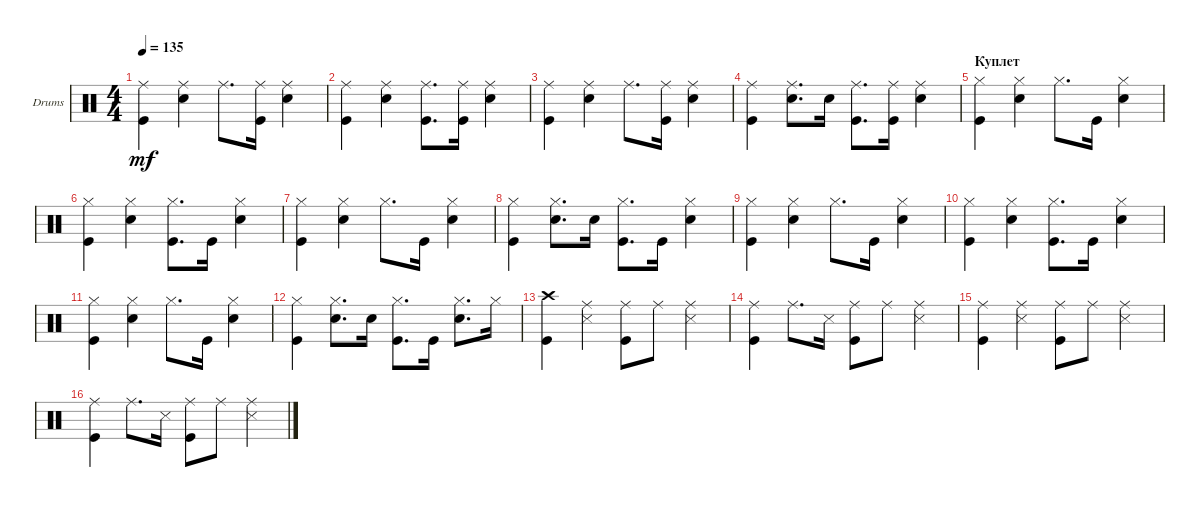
\defaultSystemsLayout 4
\bracketExtendMode groupsimilarinstruments
\firstSystemTrackNameOrientation horizontal
\otherSystemsTrackNameOrientation horizontal
\track ("Drumkit" "Drums") {instrument percussion}
\staff {score}
\articulation defaults
\ts (4 4)
\tempo 135
\clef neutral
\ks c
("Ride (middle)" "Kick (hit)").4{dy mf} ("Ride (middle)" "Snare (hit) 2").4 "Ride (middle)".8{d} ("Ride (middle)" "Kick (hit)").16 ("Ride (middle)" "Snare (hit) 2").4 |
("Ride (middle)" "Kick (hit)").4 ("Ride (middle)" "Snare (hit) 2").4 ("Ride (middle)" "Kick (hit)").8{d} ("Ride (middle)" "Kick (hit)").16 ("Ride (middle)" "Snare (hit) 2").4 |
("Ride (middle)" "Kick (hit)").4 ("Ride (middle)" "Snare (hit) 2").4 "Ride (middle)".8{d} ("Ride (middle)" "Kick (hit)").16 ("Ride (middle)" "Snare (hit) 2").4 |
("Ride (middle)" "Kick (hit)").4 ("Ride (middle)" "Snare (hit) 2").8{d} "Snare (hit) 2".16 ("Ride (middle)" "Kick (hit)").8{d} ("Ride (middle)" "Kick (hit)").16 ("Ride (middle)" "Snare (hit) 2").4 |
\section ("" "Куплет")
\scale
0.472222 ("Kick (hit)" "Hi-Hat (closed)").4 ("Snare (hit) 2" "Hi-Hat (closed)").4 "Hi-Hat (closed)".8{d} "Kick (hit)".16 ("Snare (hit) 2" "Hi-Hat (closed)").4 |
\scale
0.263889 ("Kick (hit)" "Hi-Hat (closed)").4 ("Snare (hit) 2" "Hi-Hat (closed)").4 ("Kick (hit)" "Hi-Hat (closed)").8{d} "Kick (hit)".16 ("Snare (hit) 2" "Hi-Hat (closed)").4 |
\scale
0.263889 ("Kick (hit)" "Hi-Hat (closed)").4 ("Snare (hit) 2" "Hi-Hat (closed)").4 "Hi-Hat (closed)".8{d} "Kick (hit)".16 ("Snare (hit) 2" "Hi-Hat (closed)").4 |
\scale
0.333333 ("Kick (hit)" "Hi-Hat (closed)").4 ("Snare (hit) 2" "Hi-Hat (closed)").8{d} "Snare (hit) 2".16 ("Kick (hit)" "Hi-Hat (closed)").8{d} "Kick (hit)".16 ("Snare (hit) 2" "Hi-Hat (closed)").4 |
\scale
0.333333 ("Kick (hit)" "Hi-Hat (closed)").4 ("Snare (hit) 2" "Hi-Hat (closed)").4 "Hi-Hat (closed)".8{d} "Kick (hit)".16 ("Snare (hit) 2" "Hi-Hat (closed)").4 |
\scale
0.333333 ("Kick (hit)" "Hi-Hat (closed)").4 ("Snare (hit) 2" "Hi-Hat (closed)").4 ("Kick (hit)" "Hi-Hat (closed)").8{d} "Kick (hit)".16 ("Snare (hit) 2" "Hi-Hat (closed)").4 |
\scale
0.333333 ("Kick (hit)" "Hi-Hat (closed)").4 ("Snare (hit) 2" "Hi-Hat (closed)").4 "Hi-Hat (closed)".8{d} "Kick (hit)".16 ("Snare (hit) 2" "Hi-Hat (closed)").4 |
\scale
0.333333 ("Kick (hit)" "Hi-Hat (closed)").4 ("Snare (hit) 2" "Hi-Hat (closed)").8{d} "Snare (hit) 2".16 ("Kick (hit)" "Hi-Hat (closed)").8{d} "Kick (hit)".16 ("Snare (hit) 2" "Hi-Hat (closed)").8{d} "Hi-Hat (closed)".16 |
\scale
0.333333 ("Kick (hit)" "Crash high (hit)").4 ("Ride (middle)" "Snare (side stick) 3").4 ("Ride (middle)" "Kick (hit)").8 "Ride (middle)".8 ("Ride (middle)" "Snare (side stick) 3").4 |
\scale
0.333333 ("Ride (middle)" "Kick (hit)").4 "Ride (middle)".8{d} "Snare (side stick) 3".16 ("Ride (middle)" "Kick (hit)").8 "Ride (middle)".8 ("Ride (middle)" "Snare (side stick) 3").4 |
\scale
0.333333 ("Ride (middle)" "Kick (hit)").4 ("Ride (middle)" "Snare (side stick) 3").4 ("Ride (middle)" "Kick (hit)").8 "Ride (middle)".8 ("Ride (middle)" "Snare (side stick) 3").4 |
\scale
0.333333 ("Ride (middle)" "Kick (hit)").4 "Ride (middle)".8{d} "Snare (side stick) 3".16 ("Ride (middle)" "Kick (hit)").8 "Ride (middle)".8 ("Ride (middle)" "Snare (side stick) 3").4
